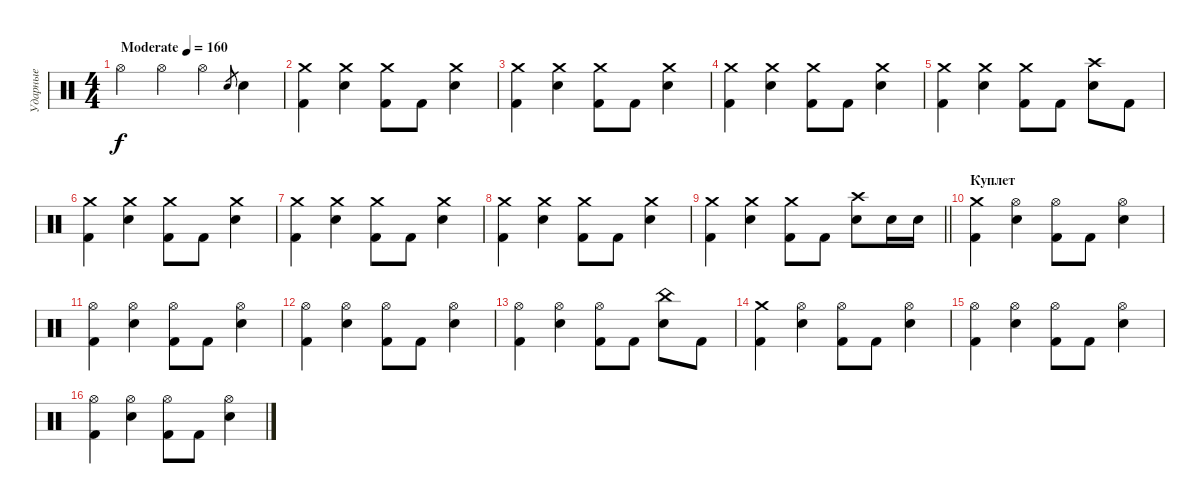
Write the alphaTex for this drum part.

\track ("Ударные" "Ударные") {instrument percussion}
\staff {score}
\articulation defaults
\ts (4 4)
\tempo (160 "Moderate")
\clef neutral
\ks c "Hi-Hat (open)".4{dy f} "Hi-Hat (open)".4 "Hi-Hat (open)".4 "Electric Snare (hit)".8{gr} "Electric Snare (hit)".4
|
("Kick (hit) 2" "Crash medium (hit)").4 ("Electric Snare (hit)" "Crash medium (hit)").4 ("Kick (hit) 2" "Crash medium (hit)").8 "Kick (hit) 2".8 ("Electric Snare (hit)" "Crash medium (hit)").4 |
("Kick (hit) 2" "Crash medium (hit)").4 ("Electric Snare (hit)" "Crash medium (hit)").4 ("Kick (hit) 2" "Crash medium (hit)").8 "Kick (hit) 2".8 ("Electric Snare (hit)" "Crash medium (hit)").4 |
("Kick (hit) 2" "Crash medium (hit)").4 ("Electric Snare (hit)" "Crash medium (hit)").4 ("Kick (hit) 2" "Crash medium (hit)").8 "Kick (hit) 2".8 ("Electric Snare (hit)" "Crash medium (hit)").4 |
("Kick (hit) 2" "Crash medium (hit)").4 ("Electric Snare (hit)" "Crash medium (hit)").4 ("Kick (hit) 2" "Crash medium (hit)").8 "Kick (hit) 2".8 ("Electric Snare (hit)" "Crash high (hit)").8 "Kick (hit) 2".8 |
("Kick (hit) 2" "Crash medium (hit)").4 ("Electric Snare (hit)" "Crash medium (hit)").4 ("Kick (hit) 2" "Crash medium (hit)").8 "Kick (hit) 2".8 ("Electric Snare (hit)" "Crash medium (hit)").4 |
("Kick (hit) 2" "Crash medium (hit)").4 ("Electric Snare (hit)" "Crash medium (hit)").4 ("Kick (hit) 2" "Crash medium (hit)").8 "Kick (hit) 2".8 ("Electric Snare (hit)" "Crash medium (hit)").4 |
("Kick (hit) 2" "Crash medium (hit)").4 ("Electric Snare (hit)" "Crash medium (hit)").4 ("Kick (hit) 2" "Crash medium (hit)").8 "Kick (hit) 2".8 ("Electric Snare (hit)" "Crash medium (hit)").4 |
\barLineRight lightlight
("Kick (hit) 2" "Crash medium (hit)").4 ("Electric Snare (hit)" "Crash medium (hit)").4 ("Kick (hit) 2" "Crash medium (hit)").8 "Kick (hit) 2".8 ("Electric Snare (hit)" "Crash high (hit)").8 "Electric Snare (hit)".16 "Electric Snare (hit)".16 |
\section ("" "Куплет")
("Kick (hit) 2" "Crash medium (hit)").4 ("Electric Snare (hit)" "Hi-Hat (open)").4 ("Kick (hit) 2" "Hi-Hat (open)").8 "Kick (hit) 2".8 ("Electric Snare (hit)" "Hi-Hat (open)").4 |
("Kick (hit) 2" "Hi-Hat (open)").4 ("Electric Snare (hit)" "Hi-Hat (open)").4 ("Kick (hit) 2" "Hi-Hat (open)").8 "Kick (hit) 2".8 ("Electric Snare (hit)" "Hi-Hat (open)").4 |
("Kick (hit) 2" "Hi-Hat (open)").4 ("Electric Snare (hit)" "Hi-Hat (open)").4 ("Kick (hit) 2" "Hi-Hat (open)").8 "Kick (hit) 2".8 ("Electric Snare (hit)" "Hi-Hat (open)").4 |
("Kick (hit) 2" "Hi-Hat (open)").4 ("Electric Snare (hit)" "Hi-Hat (open)").4 ("Kick (hit) 2" "Hi-Hat (open)").8 "Kick (hit) 2".8 ("Electric Snare (hit)" "China (hit)").8 "Kick (hit) 2".8 |
("Kick (hit) 2" "Crash medium (hit)").4 ("Electric Snare (hit)" "Hi-Hat (open)").4 ("Kick (hit) 2" "Hi-Hat (open)").8 "Kick (hit) 2".8 ("Electric Snare (hit)" "Hi-Hat (open)").4 |
("Kick (hit) 2" "Hi-Hat (open)").4 ("Electric Snare (hit)" "Hi-Hat (open)").4 ("Kick (hit) 2" "Hi-Hat (open)").8 "Kick (hit) 2".8 ("Electric Snare (hit)" "Hi-Hat (open)").4 |
("Kick (hit) 2" "Hi-Hat (open)").4 ("Electric Snare (hit)" "Hi-Hat (open)").4 ("Kick (hit) 2" "Hi-Hat (open)").8 "Kick (hit) 2".8 ("Electric Snare (hit)" "Hi-Hat (open)").4
